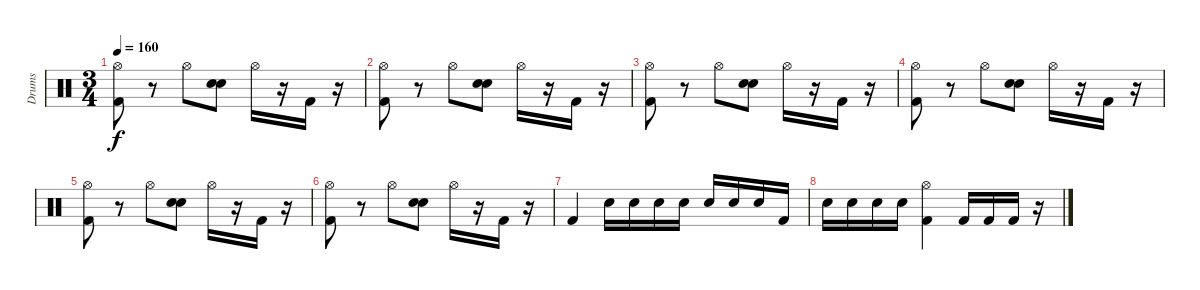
\track ("Drums" "Drums") {instrument percussion}
\staff {score}
\articulation defaults
\ts (3 4)
\tempo 160
\clef neutral
\ks c
("Kick (hit) 2" "Hi-Hat (open)").8{dy f} r.8 "Hi-Hat (open)".8 ("Snare (hit) 2" "Electric Snare (hit)").8 "Hi-Hat (open)".16 r.16 "Kick (hit) 2".16 r.16 |
("Kick (hit) 2" "Hi-Hat (open)").8 r.8 "Hi-Hat (open)".8 ("Snare (hit) 2" "Electric Snare (hit)").8 "Hi-Hat (open)".16 r.16 "Kick (hit) 2".16 r.16 |
("Kick (hit) 2" "Hi-Hat (open)").8 r.8 "Hi-Hat (open)".8 ("Snare (hit) 2" "Electric Snare (hit)").8 "Hi-Hat (open)".16 r.16 "Kick (hit) 2".16 r.16 |
("Kick (hit) 2" "Hi-Hat (open)").8 r.8 "Hi-Hat (open)".8 ("Snare (hit) 2" "Electric Snare (hit)").8 "Hi-Hat (open)".16 r.16 "Kick (hit) 2".16 r.16 |
("Kick (hit) 2" "Hi-Hat (open)").8 r.8 "Hi-Hat (open)".8 ("Snare (hit) 2" "Electric Snare (hit)").8 "Hi-Hat (open)".16 r.16 "Kick (hit) 2".16 r.16 |
("Kick (hit) 2" "Hi-Hat (open)").8 r.8 "Hi-Hat (open)".8 ("Snare (hit) 2" "Electric Snare (hit)").8 "Hi-Hat (open)".16 r.16 "Kick (hit) 2".16 r.16 |
"Kick (hit) 2".4 "Electric Snare (hit)".16 "Electric Snare (hit)".16 "Electric Snare (hit)".16 "Electric Snare (hit)".16 "Electric Snare (hit)".16 "Electric Snare (hit)".16 "Electric Snare (hit)".16 "Kick (hit) 2".16 |
"Electric Snare (hit)".16 "Electric Snare (hit)".16 "Electric Snare (hit)".16 "Electric Snare (hit)".16 ("Hi-Hat (open)" "Kick (hit) 2").4 "Kick (hit) 2".16 "Kick (hit) 2".16 "Kick (hit) 2".16 r.16
